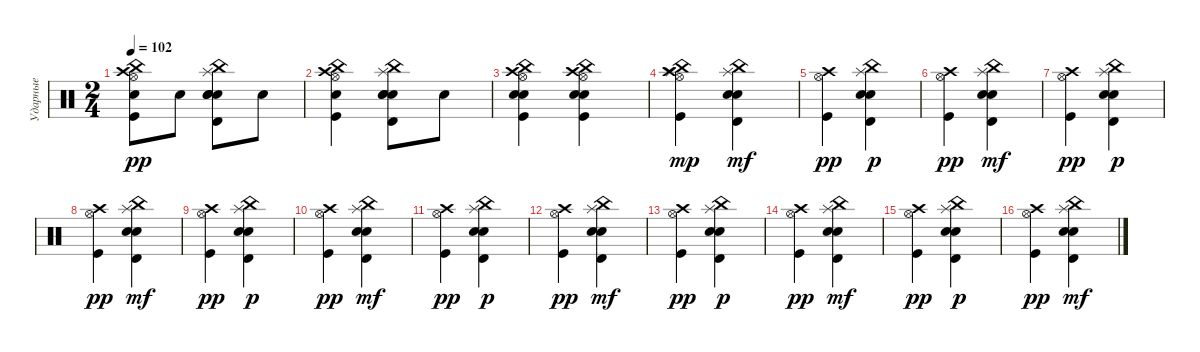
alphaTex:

\track ("Ударные" "Ударные") {instrument percussion}
\staff {score}
\articulation defaults
\ts (2 4)
\tempo 102
\clef neutral
\ks c
("Crash high (hit)" "Hi-Hat (open)" "Kick (hit)" "China (hit)" "Hand Clap (hit)").8{dy pp} "Hand Clap (hit)".8 ("China (hit)" "Splash (hit)" "Electric Snare (hit)" "Snare (hit) 2" "Timbale high (hit)" "Hand Clap (hit)").8 "Hand Clap (hit)".8 |
("China (hit)" "Kick (hit)" "Hi-Hat (open)" "Crash high (hit)" "Hand Clap (hit)").4 ("Snare (hit) 2" "Splash (hit)" "China (hit)" "Timbale high (hit)" "Electric Snare (hit)" "Hand Clap (hit)").8 "Hand Clap (hit)".8 |
("Hi-Hat (open)" "Snare (hit) 2" "Electric Snare (hit)" "China (hit)" "Kick (hit)" "Crash high (hit)").4 ("Electric Snare (hit)" "Snare (hit) 2" "Hi-Hat (open)" "Kick (hit)" "China (hit)" "Crash high (hit)").4 |
("Kick (hit)" "Hi-Hat (open)" "Crash high (hit)" "China (hit)" "Splash (hit)").4{dy mp} ("Splash (hit)" "China (hit)" "Snare (hit) 2" "Timbale high (hit)" "Electric Snare (hit)").4{dy mf} |
("Kick (hit)" "Hi-Hat (open)" "Crash high (hit)").4{dy pp} ("Splash (hit)" "China (hit)" "Snare (hit) 2" "Electric Snare (hit)" "Timbale high (hit)").4{dy p} |
("Kick (hit)" "Hi-Hat (open)" "Crash high (hit)").4{dy pp} ("Splash (hit)" "China (hit)" "Snare (hit) 2" "Timbale high (hit)" "Electric Snare (hit)").4{dy mf} |
("Kick (hit)" "Hi-Hat (open)" "Crash high (hit)").4{dy pp} ("Splash (hit)" "China (hit)" "Snare (hit) 2" "Electric Snare (hit)" "Timbale high (hit)").4{dy p} |
("Kick (hit)" "Hi-Hat (open)" "Crash high (hit)").4{dy pp} ("Splash (hit)" "China (hit)" "Snare (hit) 2" "Timbale high (hit)" "Electric Snare (hit)").4{dy mf} |
("Kick (hit)" "Hi-Hat (open)" "Crash high (hit)").4{dy pp} ("Splash (hit)" "China (hit)" "Snare (hit) 2" "Electric Snare (hit)" "Timbale high (hit)").4{dy p} |
("Kick (hit)" "Hi-Hat (open)" "Crash high (hit)").4{dy pp} ("Splash (hit)" "China (hit)" "Snare (hit) 2" "Timbale high (hit)" "Electric Snare (hit)").4{dy mf} |
("Kick (hit)" "Hi-Hat (open)" "Crash high (hit)").4{dy pp} ("Splash (hit)" "China (hit)" "Snare (hit) 2" "Electric Snare (hit)" "Timbale high (hit)").4{dy p} |
("Kick (hit)" "Hi-Hat (open)" "Crash high (hit)").4{dy pp} ("Splash (hit)" "China (hit)" "Snare (hit) 2" "Timbale high (hit)" "Electric Snare (hit)").4{dy mf} |
("Kick (hit)" "Hi-Hat (open)" "Crash high (hit)").4{dy pp} ("Splash (hit)" "China (hit)" "Snare (hit) 2" "Electric Snare (hit)" "Timbale high (hit)").4{dy p} |
("Kick (hit)" "Hi-Hat (open)" "Crash high (hit)").4{dy pp} ("Splash (hit)" "China (hit)" "Snare (hit) 2" "Timbale high (hit)" "Electric Snare (hit)").4{dy mf} |
("Kick (hit)" "Hi-Hat (open)" "Crash high (hit)").4{dy pp} ("Splash (hit)" "China (hit)" "Snare (hit) 2" "Electric Snare (hit)" "Timbale high (hit)").4{dy p} |
("Kick (hit)" "Hi-Hat (open)" "Crash high (hit)").4{dy pp} ("Splash (hit)" "China (hit)" "Snare (hit) 2" "Timbale high (hit)" "Electric Snare (hit)").4{dy mf}
